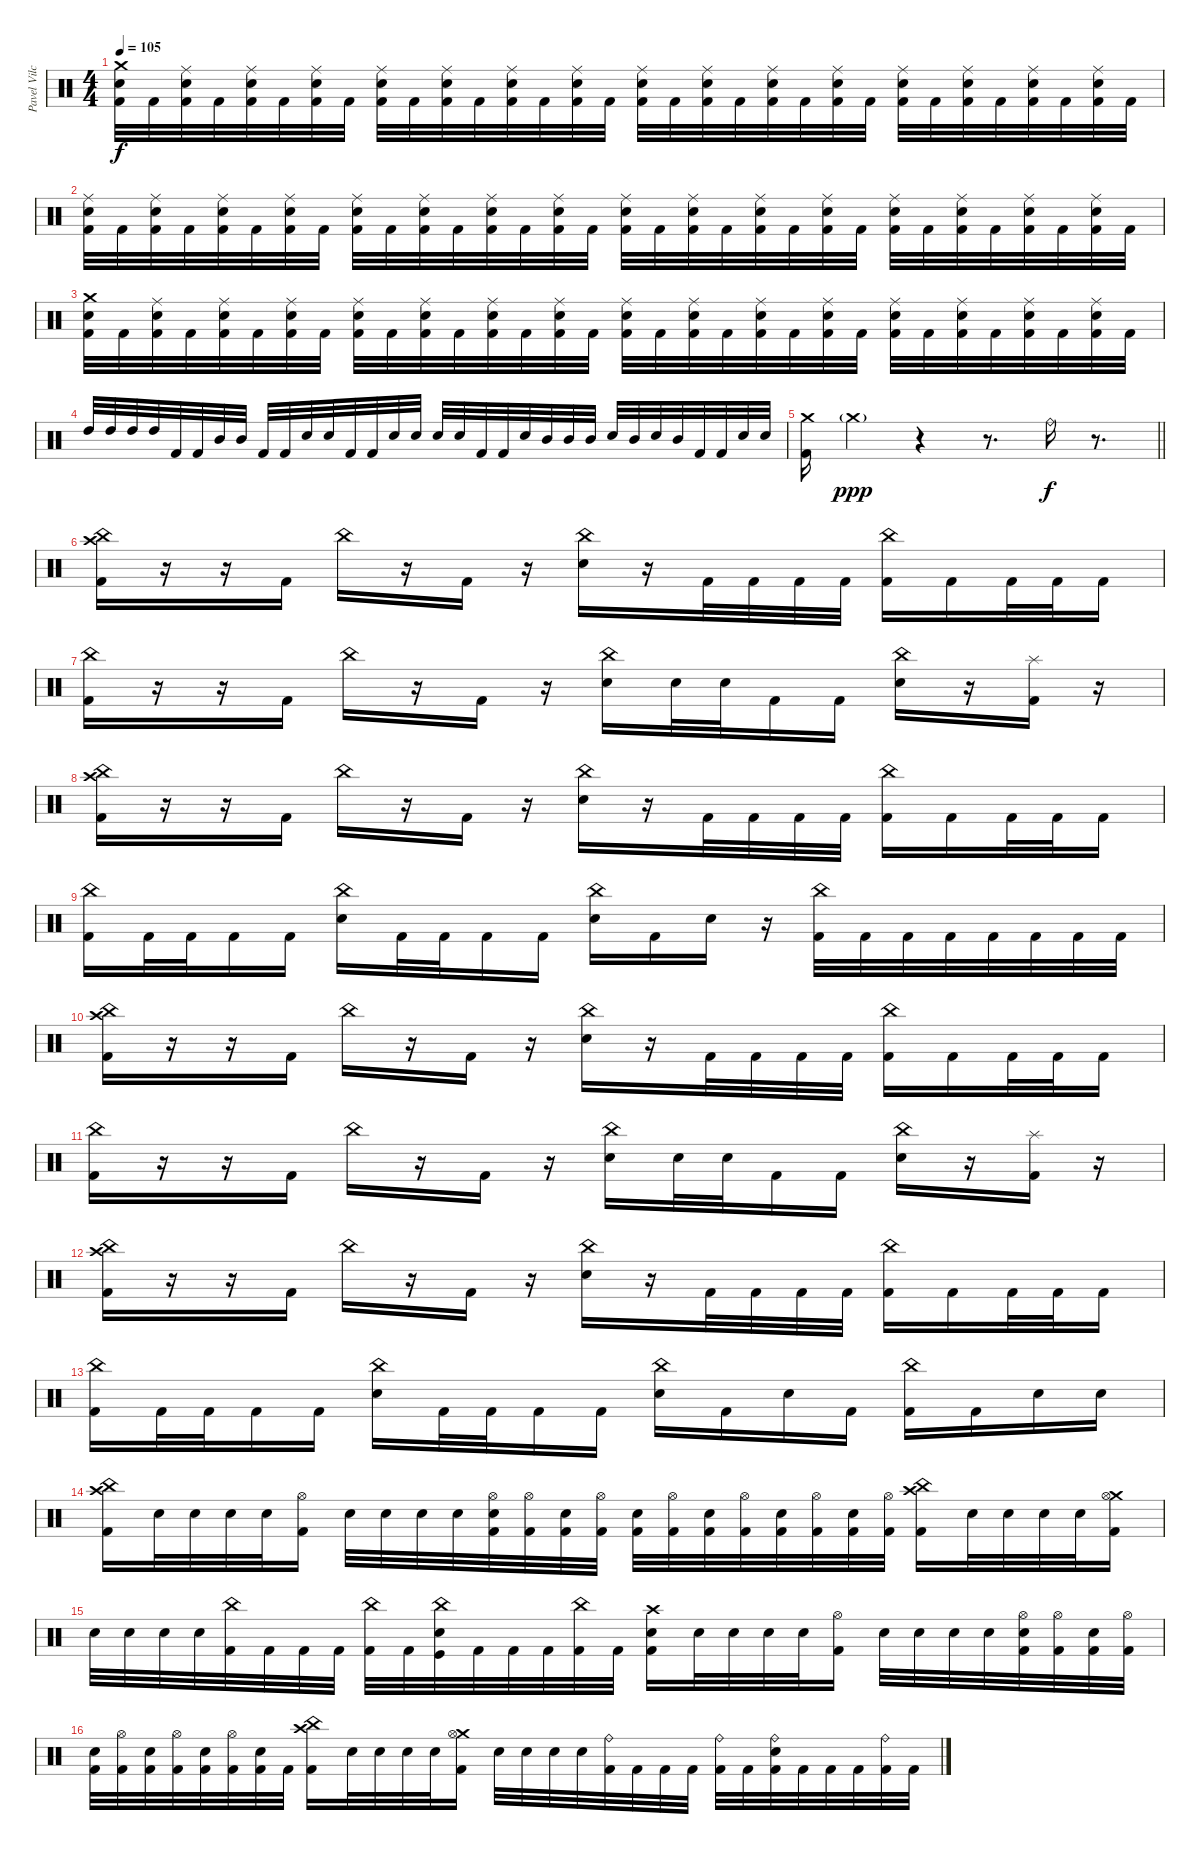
\track ("Pavel Vilchytski " "Pavel Vilc") {instrument percussion}
\staff {score}
\articulation defaults
\ts (4 4)
\tempo 105
\clef neutral
\ks c
("Kick (hit) 2" "Electric Snare (hit)" "Crash medium (hit)").32{dy f} "Kick (hit) 2".32 ("Kick (hit) 2" "Electric Snare (hit)" "Ride (middle)").32 "Kick (hit) 2".32 ("Kick (hit) 2" "Electric Snare (hit)" "Ride (middle)").32 "Kick (hit) 2".32 ("Kick (hit) 2" "Electric Snare (hit)" "Ride (middle)").32 "Kick (hit) 2".32 ("Kick (hit) 2" "Electric Snare (hit)" "Ride (middle)").32 "Kick (hit) 2".32 ("Kick (hit) 2" "Electric Snare (hit)" "Ride (middle)").32 "Kick (hit) 2".32 ("Kick (hit) 2" "Electric Snare (hit)" "Ride (middle)").32 "Kick (hit) 2".32 ("Kick (hit) 2" "Electric Snare (hit)" "Ride (middle)").32 "Kick (hit) 2".32 ("Kick (hit) 2" "Electric Snare (hit)" "Ride (middle)").32 "Kick (hit) 2".32 ("Kick (hit) 2" "Electric Snare (hit)" "Ride (middle)").32 "Kick (hit) 2".32 ("Kick (hit) 2" "Electric Snare (hit)" "Ride (middle)").32 "Kick (hit) 2".32 ("Kick (hit) 2" "Electric Snare (hit)" "Ride (middle)").32 "Kick (hit) 2".32 ("Kick (hit) 2" "Electric Snare (hit)" "Ride (middle)").32 "Kick (hit) 2".32 ("Kick (hit) 2" "Electric Snare (hit)" "Ride (middle)").32 "Kick (hit) 2".32 ("Kick (hit) 2" "Electric Snare (hit)" "Ride (middle)").32 "Kick (hit) 2".32 ("Kick (hit) 2" "Electric Snare (hit)" "Ride (middle)").32 "Kick (hit) 2".32 |
("Kick (hit) 2" "Electric Snare (hit)" "Ride (middle)").32 "Kick (hit) 2".32 ("Kick (hit) 2" "Electric Snare (hit)" "Ride (middle)").32 "Kick (hit) 2".32 ("Kick (hit) 2" "Electric Snare (hit)" "Ride (middle)").32 "Kick (hit) 2".32 ("Kick (hit) 2" "Electric Snare (hit)" "Ride (middle)").32 "Kick (hit) 2".32 ("Kick (hit) 2" "Electric Snare (hit)" "Ride (middle)").32 "Kick (hit) 2".32 ("Kick (hit) 2" "Electric Snare (hit)" "Ride (middle)").32 "Kick (hit) 2".32 ("Kick (hit) 2" "Electric Snare (hit)" "Ride (middle)").32 "Kick (hit) 2".32 ("Kick (hit) 2" "Electric Snare (hit)" "Ride (middle)").32 "Kick (hit) 2".32 ("Kick (hit) 2" "Electric Snare (hit)" "Ride (middle)").32 "Kick (hit) 2".32 ("Kick (hit) 2" "Electric Snare (hit)" "Ride (middle)").32 "Kick (hit) 2".32 ("Kick (hit) 2" "Electric Snare (hit)" "Ride (middle)").32 "Kick (hit) 2".32 ("Kick (hit) 2" "Electric Snare (hit)" "Ride (middle)").32 "Kick (hit) 2".32 ("Kick (hit) 2" "Electric Snare (hit)" "Ride (middle)").32 "Kick (hit) 2".32 ("Kick (hit) 2" "Electric Snare (hit)" "Ride (middle)").32 "Kick (hit) 2".32 ("Kick (hit) 2" "Electric Snare (hit)" "Ride (middle)").32 "Kick (hit) 2".32 ("Kick (hit) 2" "Electric Snare (hit)" "Ride (middle)").32 "Kick (hit) 2".32 |
("Kick (hit) 2" "Electric Snare (hit)" "Crash medium (hit)").32 "Kick (hit) 2".32 ("Kick (hit) 2" "Electric Snare (hit)" "Ride (middle)").32 "Kick (hit) 2".32 ("Kick (hit) 2" "Electric Snare (hit)" "Ride (middle)").32 "Kick (hit) 2".32 ("Kick (hit) 2" "Electric Snare (hit)" "Ride (middle)").32 "Kick (hit) 2".32 ("Kick (hit) 2" "Electric Snare (hit)" "Ride (middle)").32 "Kick (hit) 2".32 ("Kick (hit) 2" "Electric Snare (hit)" "Ride (middle)").32 "Kick (hit) 2".32 ("Kick (hit) 2" "Electric Snare (hit)" "Ride (middle)").32 "Kick (hit) 2".32 ("Kick (hit) 2" "Electric Snare (hit)" "Ride (middle)").32 "Kick (hit) 2".32 ("Kick (hit) 2" "Electric Snare (hit)" "Ride (middle)").32 "Kick (hit) 2".32 ("Kick (hit) 2" "Electric Snare (hit)" "Ride (middle)").32 "Kick (hit) 2".32 ("Kick (hit) 2" "Electric Snare (hit)" "Ride (middle)").32 "Kick (hit) 2".32 ("Kick (hit) 2" "Electric Snare (hit)" "Ride (middle)").32 "Kick (hit) 2".32 ("Kick (hit) 2" "Electric Snare (hit)" "Ride (middle)").32 "Kick (hit) 2".32 ("Kick (hit) 2" "Electric Snare (hit)" "Ride (middle)").32 "Kick (hit) 2".32 ("Kick (hit) 2" "Electric Snare (hit)" "Ride (middle)").32 "Kick (hit) 2".32 ("Kick (hit) 2" "Electric Snare (hit)" "Ride (middle)").32 "Kick (hit) 2".32 |
"High Tom (hit)".32 "High Tom (hit)".32 "High Tom (hit)".32 "High Tom (hit)".32 "Kick (hit) 2".32 "Kick (hit) 2".32 "Mid Tom (hit)".32 "Mid Tom (hit)".32 "Kick (hit) 2".32 "Kick (hit) 2".32 "Electric Snare (hit)".32 "Electric Snare (hit)".32 "Kick (hit) 2".32 "Kick (hit) 2".32 "Electric Snare (hit)".32 "Electric Snare (hit)".32 "Electric Snare (hit)".32 "Electric Snare (hit)".32 "Kick (hit) 2".32 "Kick (hit) 2".32 "Electric Snare (hit)".32 "Mid Tom (hit)".32 "Mid Tom (hit)".32 "Mid Tom (hit)".32 "Electric Snare (hit)".32 "Mid Tom (hit)".32 "Electric Snare (hit)".32 "Mid Tom (hit)".32 "Kick (hit) 2".32 "Kick (hit) 2".32 "Electric Snare (hit)".32 "Electric Snare (hit)".32 |
\barLineRight lightlight
("Crash medium (hit)" "Kick (hit) 2").16 "Crash medium (hit)"{g}.4{dy ppp} r.4 r.8{d} "Ride (bell)".16{dy f} r.8{d} |
\section ("" "")
("China (hit)" "Crash high (hit)" "Kick (hit) 2").16 r.16 r.16 "Kick (hit) 2".16 "China (hit)".16 r.16 "Kick (hit) 2".16 r.16 ("China (hit)" "Electric Snare (hit)").16 r.16 "Kick (hit) 2".32 "Kick (hit) 2".32 "Kick (hit) 2".32 "Kick (hit) 2".32 ("China (hit)" "Kick (hit) 2").16 "Kick (hit) 2".16 "Kick (hit) 2".32 "Kick (hit) 2".32 "Kick (hit) 2".16 |
("China (hit)" "Kick (hit) 2").16 r.16 r.16 "Kick (hit) 2".16 "China (hit)".16 r.16 "Kick (hit) 2".16 r.16 ("China (hit)" "Electric Snare (hit)").16 "Electric Snare (hit)".32 "Electric Snare (hit)".32 "Kick (hit) 2".16 "Kick (hit) 2".16 ("China (hit)" "Electric Snare (hit)").16 r.16 ("Splash (hit)" "Kick (hit) 2").16 r.16 |
("China (hit)" "Crash high (hit)" "Kick (hit) 2").16 r.16 r.16 "Kick (hit) 2".16 "China (hit)".16 r.16 "Kick (hit) 2".16 r.16 ("China (hit)" "Electric Snare (hit)").16 r.16 "Kick (hit) 2".32 "Kick (hit) 2".32 "Kick (hit) 2".32 "Kick (hit) 2".32 ("China (hit)" "Kick (hit) 2").16 "Kick (hit) 2".16 "Kick (hit) 2".32 "Kick (hit) 2".32 "Kick (hit) 2".16 |
("China (hit)" "Kick (hit) 2").16 "Kick (hit) 2".32 "Kick (hit) 2".32 "Kick (hit) 2".16 "Kick (hit) 2".16 ("China (hit)" "Electric Snare (hit)").16 "Kick (hit) 2".32 "Kick (hit) 2".32 "Kick (hit) 2".16 "Kick (hit) 2".16 ("China (hit)" "Electric Snare (hit)").16 "Kick (hit) 2".16 "Electric Snare (hit)".16 r.16 ("China (hit)" "Kick (hit) 2").32 "Kick (hit) 2".32 "Kick (hit) 2".32 "Kick (hit) 2".32 "Kick (hit) 2".32 "Kick (hit) 2".32 "Kick (hit) 2".32 "Kick (hit) 2".32 |
("China (hit)" "Crash high (hit)" "Kick (hit) 2").16 r.16 r.16 "Kick (hit) 2".16 "China (hit)".16 r.16 "Kick (hit) 2".16 r.16 ("China (hit)" "Electric Snare (hit)").16 r.16 "Kick (hit) 2".32 "Kick (hit) 2".32 "Kick (hit) 2".32 "Kick (hit) 2".32 ("China (hit)" "Kick (hit) 2").16 "Kick (hit) 2".16 "Kick (hit) 2".32 "Kick (hit) 2".32 "Kick (hit) 2".16 |
("China (hit)" "Kick (hit) 2").16 r.16 r.16 "Kick (hit) 2".16 "China (hit)".16 r.16 "Kick (hit) 2".16 r.16 ("China (hit)" "Electric Snare (hit)").16 "Electric Snare (hit)".32 "Electric Snare (hit)".32 "Kick (hit) 2".16 "Kick (hit) 2".16 ("China (hit)" "Electric Snare (hit)").16 r.16 ("Splash (hit)" "Kick (hit) 2").16 r.16 |
("China (hit)" "Crash high (hit)" "Kick (hit) 2").16 r.16 r.16 "Kick (hit) 2".16 "China (hit)".16 r.16 "Kick (hit) 2".16 r.16 ("China (hit)" "Electric Snare (hit)").16 r.16 "Kick (hit) 2".32 "Kick (hit) 2".32 "Kick (hit) 2".32 "Kick (hit) 2".32 ("China (hit)" "Kick (hit) 2").16 "Kick (hit) 2".16 "Kick (hit) 2".32 "Kick (hit) 2".32 "Kick (hit) 2".16 |
("China (hit)" "Kick (hit) 2").16 "Kick (hit) 2".32 "Kick (hit) 2".32 "Kick (hit) 2".16 "Kick (hit) 2".16 ("China (hit)" "Electric Snare (hit)").16 "Kick (hit) 2".32 "Kick (hit) 2".32 "Kick (hit) 2".16 "Kick (hit) 2".16 ("China (hit)" "Electric Snare (hit)").16 "Kick (hit) 2".16 "Electric Snare (hit)".16 "Kick (hit) 2".16 ("China (hit)" "Kick (hit) 2").16 "Kick (hit) 2".16 "Electric Snare (hit)".16 "Electric Snare (hit)".16 |
("China (hit)" "Crash high (hit)" "Kick (hit) 2").16 "Electric Snare (hit)".32 "Electric Snare (hit)".32 "Electric Snare (hit)".32 "Electric Snare (hit)".32 ("Hi-Hat (open)" "Kick (hit) 2").16 "Electric Snare (hit)".32 "Electric Snare (hit)".32 "Electric Snare (hit)".32 "Electric Snare (hit)".32 ("Hi-Hat (open)" "Electric Snare (hit)" "Kick (hit) 2").32 ("Hi-Hat (open)" "Kick (hit) 2").32 ("Electric Snare (hit)" "Kick (hit) 2").32 ("Hi-Hat (open)" "Kick (hit) 2").32 ("Electric Snare (hit)" "Kick (hit) 2").32 ("Hi-Hat (open)" "Kick (hit) 2").32 ("Electric Snare (hit)" "Kick (hit) 2").32 ("Hi-Hat (open)" "Kick (hit) 2").32 ("Electric Snare (hit)" "Kick (hit) 2").32 ("Hi-Hat (open)" "Kick (hit) 2").32 ("Electric Snare (hit)" "Kick (hit) 2").32 ("Hi-Hat (open)" "Kick (hit) 2").32 ("China (hit)" "Crash high (hit)" "Kick (hit) 2").16 "Electric Snare (hit)".32 "Electric Snare (hit)".32 "Electric Snare (hit)".32 "Electric Snare (hit)".32 ("Crash medium (hit)" "Hi-Hat (open)" "Kick (hit) 2").16 |
"Electric Snare (hit)".32 "Electric Snare (hit)".32 "Electric Snare (hit)".32 "Electric Snare (hit)".32 ("China (hit)" "Kick (hit) 2").32 "Kick (hit) 2".32 "Kick (hit) 2".32 "Kick (hit) 2".32 ("China (hit)" "Kick (hit) 2").32 "Kick (hit) 2".32 ("China (hit)" "Electric Snare (hit)" "Kick (hit)").32 "Kick (hit) 2".32 "Kick (hit) 2".32 "Kick (hit) 2".32 ("China (hit)" "Kick (hit) 2").32 "Kick (hit) 2".32 ("Crash high (hit)" "Electric Snare (hit)" "Kick (hit) 2").16 "Electric Snare (hit)".32 "Electric Snare (hit)".32 "Electric Snare (hit)".32 "Electric Snare (hit)".32 ("Hi-Hat (open)" "Kick (hit) 2").16 "Electric Snare (hit)".32 "Electric Snare (hit)".32 "Electric Snare (hit)".32 "Electric Snare (hit)".32 ("Hi-Hat (open)" "Electric Snare (hit)" "Kick (hit) 2").32 ("Hi-Hat (open)" "Kick (hit) 2").32 ("Electric Snare (hit)" "Kick (hit) 2").32 ("Hi-Hat (open)" "Kick (hit) 2").32 |
("Electric Snare (hit)" "Kick (hit) 2").32 ("Hi-Hat (open)" "Kick (hit) 2").32 ("Electric Snare (hit)" "Kick (hit) 2").32 ("Hi-Hat (open)" "Kick (hit) 2").32 ("Electric Snare (hit)" "Kick (hit) 2").32 ("Hi-Hat (open)" "Kick (hit) 2").32 ("Electric Snare (hit)" "Kick (hit) 2").32 "Kick (hit) 2".32 ("China (hit)" "Crash high (hit)" "Kick (hit) 2").16 "Electric Snare (hit)".32 "Electric Snare (hit)".32 "Electric Snare (hit)".32 "Electric Snare (hit)".32 ("Crash medium (hit)" "Hi-Hat (open)" "Kick (hit) 2").16 "Electric Snare (hit)".32 "Electric Snare (hit)".32 "Electric Snare (hit)".32 "Electric Snare (hit)".32 ("Ride (bell)" "Kick (hit) 2").32 "Kick (hit) 2".32 "Kick (hit) 2".32 "Kick (hit) 2".32 ("Ride (bell)" "Kick (hit) 2").32 "Kick (hit) 2".32 ("Ride (bell)" "Electric Snare (hit)" "Kick (hit) 2").32 "Kick (hit) 2".32 "Kick (hit) 2".32 "Kick (hit) 2".32 ("Ride (bell)" "Kick (hit) 2").32 "Kick (hit) 2".32
